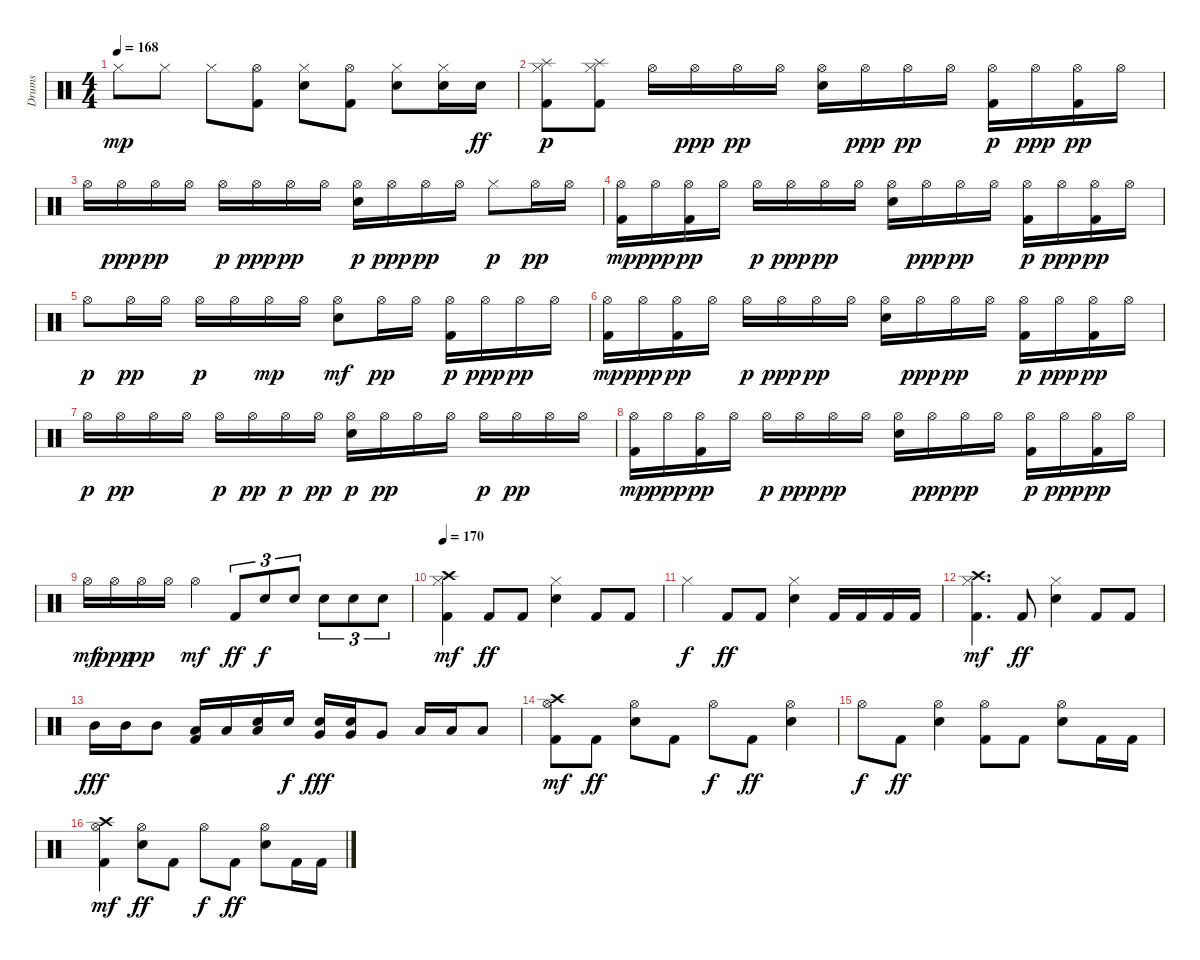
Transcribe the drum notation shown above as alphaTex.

\track ("Drums" "Drums") {instrument percussion}
\staff {score}
\articulation defaults
\ts (4 4)
\tempo 168
\clef neutral
\ks c "Hi-Hat (closed)".8{dy mp} "Hi-Hat (closed)".8 "Hi-Hat (closed)".8
("Kick (hit) 2" "Hi-Hat (open)").8 ("Electric Snare (hit)" "Hi-Hat (closed)").8 ("Kick (hit) 2" "Hi-Hat (open)").8 ("Electric Snare (hit)" "Hi-Hat (closed)").8 ("Electric Snare (hit)" "Hi-Hat (closed)").16 "Electric Snare (hit)".16{dy ff} |
("Kick (hit) 2" "Hi-Hat (closed)" "Splash (hit)").8{dy p} ("Kick (hit) 2" "Hi-Hat (closed)" "Splash (hit)").8 "Hi-Hat (open)".16 "Hi-Hat (open)".16{dy ppp} "Hi-Hat (open)".16{dy pp} "Hi-Hat (open)".16 ("Electric Snare (hit)" "Hi-Hat (open)").16 "Hi-Hat (open)".16{dy ppp} "Hi-Hat (open)".16{dy pp} "Hi-Hat (open)".16 ("Kick (hit) 2" "Hi-Hat (open)").16{dy p} "Hi-Hat (open)".16{dy ppp} ("Kick (hit) 2" "Hi-Hat (open)").16{dy pp} "Hi-Hat (open)".16 |
"Hi-Hat (open)".16 "Hi-Hat (open)".16{dy ppp} "Hi-Hat (open)".16{dy pp} "Hi-Hat (open)".16 "Hi-Hat (open)".16{dy p} "Hi-Hat (open)".16{dy ppp} "Hi-Hat (open)".16{dy pp} "Hi-Hat (open)".16 ("Electric Snare (hit)" "Hi-Hat (open)").16{dy p} "Hi-Hat (open)".16{dy ppp} "Hi-Hat (open)".16{dy pp} "Hi-Hat (open)".16 "Hi-Hat (closed)".8{dy p} "Hi-Hat (open)".16{dy pp} "Hi-Hat (open)".16 |
("Kick (hit) 2" "Hi-Hat (open)").16{dy mp} "Hi-Hat (open)".16{dy ppp} ("Kick (hit) 2" "Hi-Hat (open)").16{dy pp} "Hi-Hat (open)".16 "Hi-Hat (open)".16{dy p} "Hi-Hat (open)".16{dy ppp} "Hi-Hat (open)".16{dy pp} "Hi-Hat (open)".16 ("Electric Snare (hit)" "Hi-Hat (open)").16 "Hi-Hat (open)".16{dy ppp} "Hi-Hat (open)".16{dy pp} "Hi-Hat (open)".16 ("Kick (hit) 2" "Hi-Hat (open)").16{dy p} "Hi-Hat (open)".16{dy ppp} ("Kick (hit) 2" "Hi-Hat (open)").16{dy pp} "Hi-Hat (open)".16 |
"Hi-Hat (open)".8{dy p} "Hi-Hat (open)".16{dy pp} "Hi-Hat (open)".16 "Hi-Hat (open)".16{dy p} "Hi-Hat (open)".16 "Hi-Hat (open)".16{dy mp} "Hi-Hat (open)".16 ("Electric Snare (hit)" "Hi-Hat (open)").8{dy mf} "Hi-Hat (open)".16{dy pp} "Hi-Hat (open)".16 ("Kick (hit) 2" "Hi-Hat (open)").16{dy p} "Hi-Hat (open)".16{dy ppp} "Hi-Hat (open)".16{dy pp} "Hi-Hat (open)".16 |
("Kick (hit) 2" "Hi-Hat (open)").16{dy mp} "Hi-Hat (open)".16{dy ppp} ("Kick (hit) 2" "Hi-Hat (open)").16{dy pp} "Hi-Hat (open)".16 "Hi-Hat (open)".16{dy p} "Hi-Hat (open)".16{dy ppp} "Hi-Hat (open)".16{dy pp} "Hi-Hat (open)".16 ("Electric Snare (hit)" "Hi-Hat (open)").16 "Hi-Hat (open)".16{dy ppp} "Hi-Hat (open)".16{dy pp} "Hi-Hat (open)".16 ("Kick (hit) 2" "Hi-Hat (open)").16{dy p} "Hi-Hat (open)".16{dy ppp} ("Kick (hit) 2" "Hi-Hat (open)").16{dy pp} "Hi-Hat (open)".16 |
"Hi-Hat (open)".16{dy p} "Hi-Hat (open)".16{dy pp} "Hi-Hat (open)".16 "Hi-Hat (open)".16 "Hi-Hat (open)".16{dy p} "Hi-Hat (open)".16{dy pp} "Hi-Hat (open)".16{dy p} "Hi-Hat (open)".16{dy pp} ("Electric Snare (hit)" "Hi-Hat (open)").16{dy p} "Hi-Hat (open)".16{dy pp} "Hi-Hat (open)".16 "Hi-Hat (open)".16 "Hi-Hat (open)".16{dy p} "Hi-Hat (open)".16{dy pp} "Hi-Hat (open)".16 "Hi-Hat (open)".16 |
("Kick (hit) 2" "Hi-Hat (open)").16{dy mp} "Hi-Hat (open)".16{dy ppp} ("Kick (hit) 2" "Hi-Hat (open)").16{dy pp} "Hi-Hat (open)".16 "Hi-Hat (open)".16{dy p} "Hi-Hat (open)".16{dy ppp} "Hi-Hat (open)".16{dy pp} "Hi-Hat (open)".16 ("Electric Snare (hit)" "Hi-Hat (open)").16 "Hi-Hat (open)".16{dy ppp} "Hi-Hat (open)".16{dy pp} "Hi-Hat (open)".16 ("Kick (hit) 2" "Hi-Hat (open)").16{dy p} "Hi-Hat (open)".16{dy ppp} ("Kick (hit) 2" "Hi-Hat (open)").16{dy pp} "Hi-Hat (open)".16 |
"Hi-Hat (open)".16{dy mf} "Hi-Hat (open)".16{dy ppp} "Hi-Hat (open)".16{dy pp} "Hi-Hat (open)".16 "Hi-Hat (open)".4{dy mf} "Kick (hit) 2".8{tu (3 2) dy ff} "Electric Snare (hit)".8{tu (3 2) dy f} "Electric Snare (hit)".8{tu (3 2)} "Electric Snare (hit)".8{tu (3 2)} "Electric Snare (hit)".8{tu (3 2)} "Electric Snare (hit)".8{tu (3 2)} |
\tempo 170
("Kick (hit) 2" "Hi-Hat (closed)" "Crash high (hit)").4{dy mf} "Kick (hit) 2".8{dy ff} "Kick (hit) 2".8 ("Electric Snare (hit)" "Hi-Hat (closed)").4 "Kick (hit) 2".8 "Kick (hit) 2".8 |
"Hi-Hat (closed)".4{dy f} "Kick (hit) 2".8{dy ff} "Kick (hit) 2".8 ("Electric Snare (hit)" "Hi-Hat (closed)").4 "Kick (hit) 2".16 "Kick (hit) 2".16 "Kick (hit) 2".16 "Kick (hit) 2".16 |
("Kick (hit) 2" "Hi-Hat (closed)" "Crash high (hit)").4{d dy mf} "Kick (hit) 2".8{dy ff} ("Electric Snare (hit)" "Hi-Hat (closed)").4 "Kick (hit) 2".8 "Kick (hit) 2".8 |
"Mid Tom (hit)".16{dy fff} "Mid Tom (hit)".16 "Mid Tom (hit)".8 ("Kick (hit) 2" "Low Tom (hit)").16 "Low Tom (hit)".16 ("Low Tom (hit)" "Electric Snare (hit)").16 "Electric Snare (hit)".16{dy f} ("Very Low Tom (hit)" "Electric Snare (hit)").16{dy fff} ("Very Low Tom (hit)" "Electric Snare (hit)").16 "Very Low Tom (hit)".8 "Low Floor Tom (hit)".16 "Low Floor Tom (hit)".16 "Low Floor Tom (hit)".8 |
("Kick (hit) 2" "Hi-Hat (open)" "Crash high (hit)").8{dy mf} "Kick (hit) 2".8{dy ff} ("Electric Snare (hit)" "Hi-Hat (open)").8 "Kick (hit) 2".8 "Hi-Hat (open)".8{dy f} "Kick (hit) 2".8{dy ff} ("Electric Snare (hit)" "Hi-Hat (open)").4 |
"Hi-Hat (open)".8{dy f} "Kick (hit) 2".8{dy ff} ("Electric Snare (hit)" "Hi-Hat (open)").4 ("Kick (hit) 2" "Hi-Hat (open)").8 "Kick (hit) 2".8 ("Electric Snare (hit)" "Hi-Hat (open)").8 "Kick (hit) 2".16 "Kick (hit) 2".16 |
("Kick (hit) 2" "Hi-Hat (open)" "Crash high (hit)").4{dy mf} ("Electric Snare (hit)" "Hi-Hat (open)").8{dy ff} "Kick (hit) 2".8 "Hi-Hat (open)".8{dy f} "Kick (hit) 2".8{dy ff} ("Electric Snare (hit)" "Hi-Hat (open)").8 "Kick (hit) 2".16 "Kick (hit) 2".16
